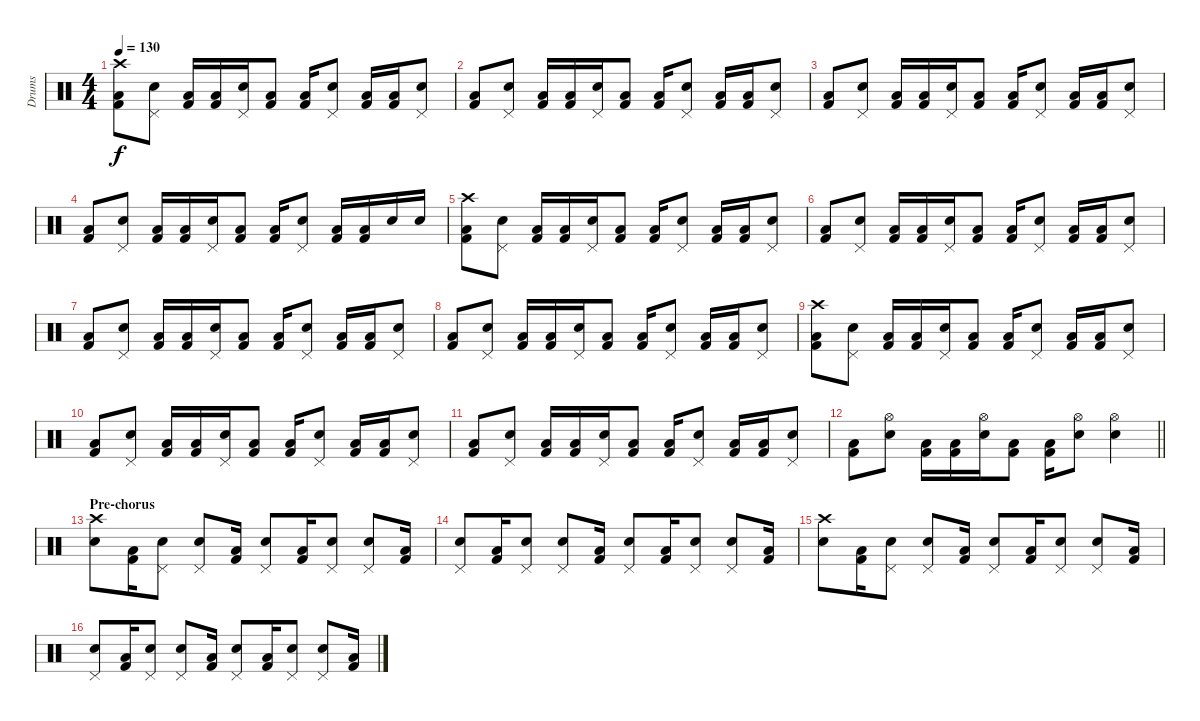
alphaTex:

\track ("Drums" "Drums") {instrument percussion}
\staff {score}
\articulation defaults
\ts (4 4)
\tempo 130
\clef neutral
\ks c
("Kick (hit) 2" "Low Floor Tom (hit)" "Crash high (hit)").8{dy f} ("Electric Snare (hit)" "Pedal Hi-Hat (hit)").8 ("Kick (hit) 2" "Low Floor Tom (hit)").16 ("Kick (hit) 2" "Low Floor Tom (hit)").16 ("Electric Snare (hit)" "Pedal Hi-Hat (hit)").16 ("Kick (hit) 2" "Low Floor Tom (hit)").8 ("Kick (hit) 2" "Low Floor Tom (hit)").16 ("Electric Snare (hit)" "Pedal Hi-Hat (hit)").8 ("Kick (hit) 2" "Low Floor Tom (hit)").16 ("Kick (hit) 2" "Low Floor Tom (hit)").16 ("Electric Snare (hit)" "Pedal Hi-Hat (hit)").8 |
("Kick (hit) 2" "Low Floor Tom (hit)").8 ("Electric Snare (hit)" "Pedal Hi-Hat (hit)").8 ("Kick (hit) 2" "Low Floor Tom (hit)").16 ("Kick (hit) 2" "Low Floor Tom (hit)").16 ("Electric Snare (hit)" "Pedal Hi-Hat (hit)").16 ("Kick (hit) 2" "Low Floor Tom (hit)").8 ("Kick (hit) 2" "Low Floor Tom (hit)").16 ("Electric Snare (hit)" "Pedal Hi-Hat (hit)").8 ("Kick (hit) 2" "Low Floor Tom (hit)").16 ("Kick (hit) 2" "Low Floor Tom (hit)").16 ("Electric Snare (hit)" "Pedal Hi-Hat (hit)").8 |
("Kick (hit) 2" "Low Floor Tom (hit)").8 ("Electric Snare (hit)" "Pedal Hi-Hat (hit)").8 ("Kick (hit) 2" "Low Floor Tom (hit)").16 ("Kick (hit) 2" "Low Floor Tom (hit)").16 ("Electric Snare (hit)" "Pedal Hi-Hat (hit)").16 ("Kick (hit) 2" "Low Floor Tom (hit)").8 ("Kick (hit) 2" "Low Floor Tom (hit)").16 ("Electric Snare (hit)" "Pedal Hi-Hat (hit)").8 ("Kick (hit) 2" "Low Floor Tom (hit)").16 ("Kick (hit) 2" "Low Floor Tom (hit)").16 ("Electric Snare (hit)" "Pedal Hi-Hat (hit)").8 |
("Kick (hit) 2" "Low Floor Tom (hit)").8 ("Electric Snare (hit)" "Pedal Hi-Hat (hit)").8 ("Kick (hit) 2" "Low Floor Tom (hit)").16 ("Kick (hit) 2" "Low Floor Tom (hit)").16 ("Electric Snare (hit)" "Pedal Hi-Hat (hit)").16 ("Kick (hit) 2" "Low Floor Tom (hit)").8 ("Kick (hit) 2" "Low Floor Tom (hit)").16 ("Electric Snare (hit)" "Pedal Hi-Hat (hit)").8 ("Kick (hit) 2" "Low Floor Tom (hit)").16 ("Kick (hit) 2" "Low Floor Tom (hit)").16 "Electric Snare (hit)".16 "Electric Snare (hit)".16 |
("Kick (hit) 2" "Low Floor Tom (hit)" "Crash high (hit)").8 ("Electric Snare (hit)" "Pedal Hi-Hat (hit)").8 ("Kick (hit) 2" "Low Floor Tom (hit)").16 ("Kick (hit) 2" "Low Floor Tom (hit)").16 ("Electric Snare (hit)" "Pedal Hi-Hat (hit)").16 ("Kick (hit) 2" "Low Floor Tom (hit)").8 ("Kick (hit) 2" "Low Floor Tom (hit)").16 ("Electric Snare (hit)" "Pedal Hi-Hat (hit)").8 ("Kick (hit) 2" "Low Floor Tom (hit)").16 ("Kick (hit) 2" "Low Floor Tom (hit)").16 ("Electric Snare (hit)" "Pedal Hi-Hat (hit)").8 |
("Kick (hit) 2" "Low Floor Tom (hit)").8 ("Electric Snare (hit)" "Pedal Hi-Hat (hit)").8 ("Kick (hit) 2" "Low Floor Tom (hit)").16 ("Kick (hit) 2" "Low Floor Tom (hit)").16 ("Electric Snare (hit)" "Pedal Hi-Hat (hit)").16 ("Kick (hit) 2" "Low Floor Tom (hit)").8 ("Kick (hit) 2" "Low Floor Tom (hit)").16 ("Electric Snare (hit)" "Pedal Hi-Hat (hit)").8 ("Kick (hit) 2" "Low Floor Tom (hit)").16 ("Kick (hit) 2" "Low Floor Tom (hit)").16 ("Electric Snare (hit)" "Pedal Hi-Hat (hit)").8 |
("Kick (hit) 2" "Low Floor Tom (hit)").8 ("Electric Snare (hit)" "Pedal Hi-Hat (hit)").8 ("Kick (hit) 2" "Low Floor Tom (hit)").16 ("Kick (hit) 2" "Low Floor Tom (hit)").16 ("Electric Snare (hit)" "Pedal Hi-Hat (hit)").16 ("Kick (hit) 2" "Low Floor Tom (hit)").8 ("Kick (hit) 2" "Low Floor Tom (hit)").16 ("Electric Snare (hit)" "Pedal Hi-Hat (hit)").8 ("Kick (hit) 2" "Low Floor Tom (hit)").16 ("Kick (hit) 2" "Low Floor Tom (hit)").16 ("Electric Snare (hit)" "Pedal Hi-Hat (hit)").8 |
("Kick (hit) 2" "Low Floor Tom (hit)").8 ("Electric Snare (hit)" "Pedal Hi-Hat (hit)").8 ("Kick (hit) 2" "Low Floor Tom (hit)").16 ("Kick (hit) 2" "Low Floor Tom (hit)").16 ("Electric Snare (hit)" "Pedal Hi-Hat (hit)").16 ("Kick (hit) 2" "Low Floor Tom (hit)").8 ("Kick (hit) 2" "Low Floor Tom (hit)").16 ("Electric Snare (hit)" "Pedal Hi-Hat (hit)").8 ("Kick (hit) 2" "Low Floor Tom (hit)").16 ("Kick (hit) 2" "Low Floor Tom (hit)").16 ("Electric Snare (hit)" "Pedal Hi-Hat (hit)").8 |
("Kick (hit) 2" "Low Floor Tom (hit)" "Crash high (hit)").8 ("Electric Snare (hit)" "Pedal Hi-Hat (hit)").8 ("Kick (hit) 2" "Low Floor Tom (hit)").16 ("Kick (hit) 2" "Low Floor Tom (hit)").16 ("Electric Snare (hit)" "Pedal Hi-Hat (hit)").16 ("Kick (hit) 2" "Low Floor Tom (hit)").8 ("Kick (hit) 2" "Low Floor Tom (hit)").16 ("Electric Snare (hit)" "Pedal Hi-Hat (hit)").8 ("Kick (hit) 2" "Low Floor Tom (hit)").16 ("Kick (hit) 2" "Low Floor Tom (hit)").16 ("Electric Snare (hit)" "Pedal Hi-Hat (hit)").8 |
("Kick (hit) 2" "Low Floor Tom (hit)").8 ("Electric Snare (hit)" "Pedal Hi-Hat (hit)").8 ("Kick (hit) 2" "Low Floor Tom (hit)").16 ("Kick (hit) 2" "Low Floor Tom (hit)").16 ("Electric Snare (hit)" "Pedal Hi-Hat (hit)").16 ("Kick (hit) 2" "Low Floor Tom (hit)").8 ("Kick (hit) 2" "Low Floor Tom (hit)").16 ("Electric Snare (hit)" "Pedal Hi-Hat (hit)").8 ("Kick (hit) 2" "Low Floor Tom (hit)").16 ("Kick (hit) 2" "Low Floor Tom (hit)").16 ("Electric Snare (hit)" "Pedal Hi-Hat (hit)").8 |
("Kick (hit) 2" "Low Floor Tom (hit)").8 ("Electric Snare (hit)" "Pedal Hi-Hat (hit)").8 ("Kick (hit) 2" "Low Floor Tom (hit)").16 ("Kick (hit) 2" "Low Floor Tom (hit)").16 ("Electric Snare (hit)" "Pedal Hi-Hat (hit)").16 ("Kick (hit) 2" "Low Floor Tom (hit)").8 ("Kick (hit) 2" "Low Floor Tom (hit)").16 ("Electric Snare (hit)" "Pedal Hi-Hat (hit)").8 ("Kick (hit) 2" "Low Floor Tom (hit)").16 ("Kick (hit) 2" "Low Floor Tom (hit)").16 ("Electric Snare (hit)" "Pedal Hi-Hat (hit)").8 |
\barLineRight lightlight
("Kick (hit) 2" "Low Floor Tom (hit)").8 ("Electric Snare (hit)" "Hi-Hat (open)").8 ("Kick (hit) 2" "Low Floor Tom (hit)").16 ("Kick (hit) 2" "Low Floor Tom (hit)").16 ("Electric Snare (hit)" "Hi-Hat (open)").16 ("Kick (hit) 2" "Low Floor Tom (hit)").8 ("Kick (hit) 2" "Low Floor Tom (hit)").16 ("Electric Snare (hit)" "Hi-Hat (open)").8 ("Electric Snare (hit)" "Hi-Hat (open)").4 |
\section ("" "Pre-chorus")
("Electric Snare (hit)" "Crash high (hit)").8 ("Kick (hit) 2" "Low Floor Tom (hit)").16 ("Electric Snare (hit)" "Pedal Hi-Hat (hit)").8 ("Electric Snare (hit)" "Pedal Hi-Hat (hit)").8 ("Kick (hit) 2" "Low Floor Tom (hit)").16 ("Electric Snare (hit)" "Pedal Hi-Hat (hit)").8 ("Kick (hit) 2" "Low Floor Tom (hit)").16 ("Electric Snare (hit)" "Pedal Hi-Hat (hit)").8 ("Electric Snare (hit)" "Pedal Hi-Hat (hit)").8 ("Kick (hit) 2" "Low Floor Tom (hit)").16 |
("Electric Snare (hit)" "Pedal Hi-Hat (hit)").8 ("Kick (hit) 2" "Low Floor Tom (hit)").16 ("Electric Snare (hit)" "Pedal Hi-Hat (hit)").8 ("Electric Snare (hit)" "Pedal Hi-Hat (hit)").8 ("Kick (hit) 2" "Low Floor Tom (hit)").16 ("Electric Snare (hit)" "Pedal Hi-Hat (hit)").8 ("Kick (hit) 2" "Low Floor Tom (hit)").16 ("Electric Snare (hit)" "Pedal Hi-Hat (hit)").8 ("Electric Snare (hit)" "Pedal Hi-Hat (hit)").8 ("Kick (hit) 2" "Low Floor Tom (hit)").16 |
("Electric Snare (hit)" "Crash high (hit)").8 ("Kick (hit) 2" "Low Floor Tom (hit)").16 ("Electric Snare (hit)" "Pedal Hi-Hat (hit)").8 ("Electric Snare (hit)" "Pedal Hi-Hat (hit)").8 ("Kick (hit) 2" "Low Floor Tom (hit)").16 ("Electric Snare (hit)" "Pedal Hi-Hat (hit)").8 ("Kick (hit) 2" "Low Floor Tom (hit)").16 ("Electric Snare (hit)" "Pedal Hi-Hat (hit)").8 ("Electric Snare (hit)" "Pedal Hi-Hat (hit)").8 ("Kick (hit) 2" "Low Floor Tom (hit)").16 |
("Electric Snare (hit)" "Pedal Hi-Hat (hit)").8 ("Kick (hit) 2" "Low Floor Tom (hit)").16 ("Electric Snare (hit)" "Pedal Hi-Hat (hit)").8 ("Electric Snare (hit)" "Pedal Hi-Hat (hit)").8 ("Kick (hit) 2" "Low Floor Tom (hit)").16 ("Electric Snare (hit)" "Pedal Hi-Hat (hit)").8 ("Kick (hit) 2" "Low Floor Tom (hit)").16 ("Electric Snare (hit)" "Pedal Hi-Hat (hit)").8 ("Electric Snare (hit)" "Pedal Hi-Hat (hit)").8 ("Kick (hit) 2" "Low Floor Tom (hit)").16
